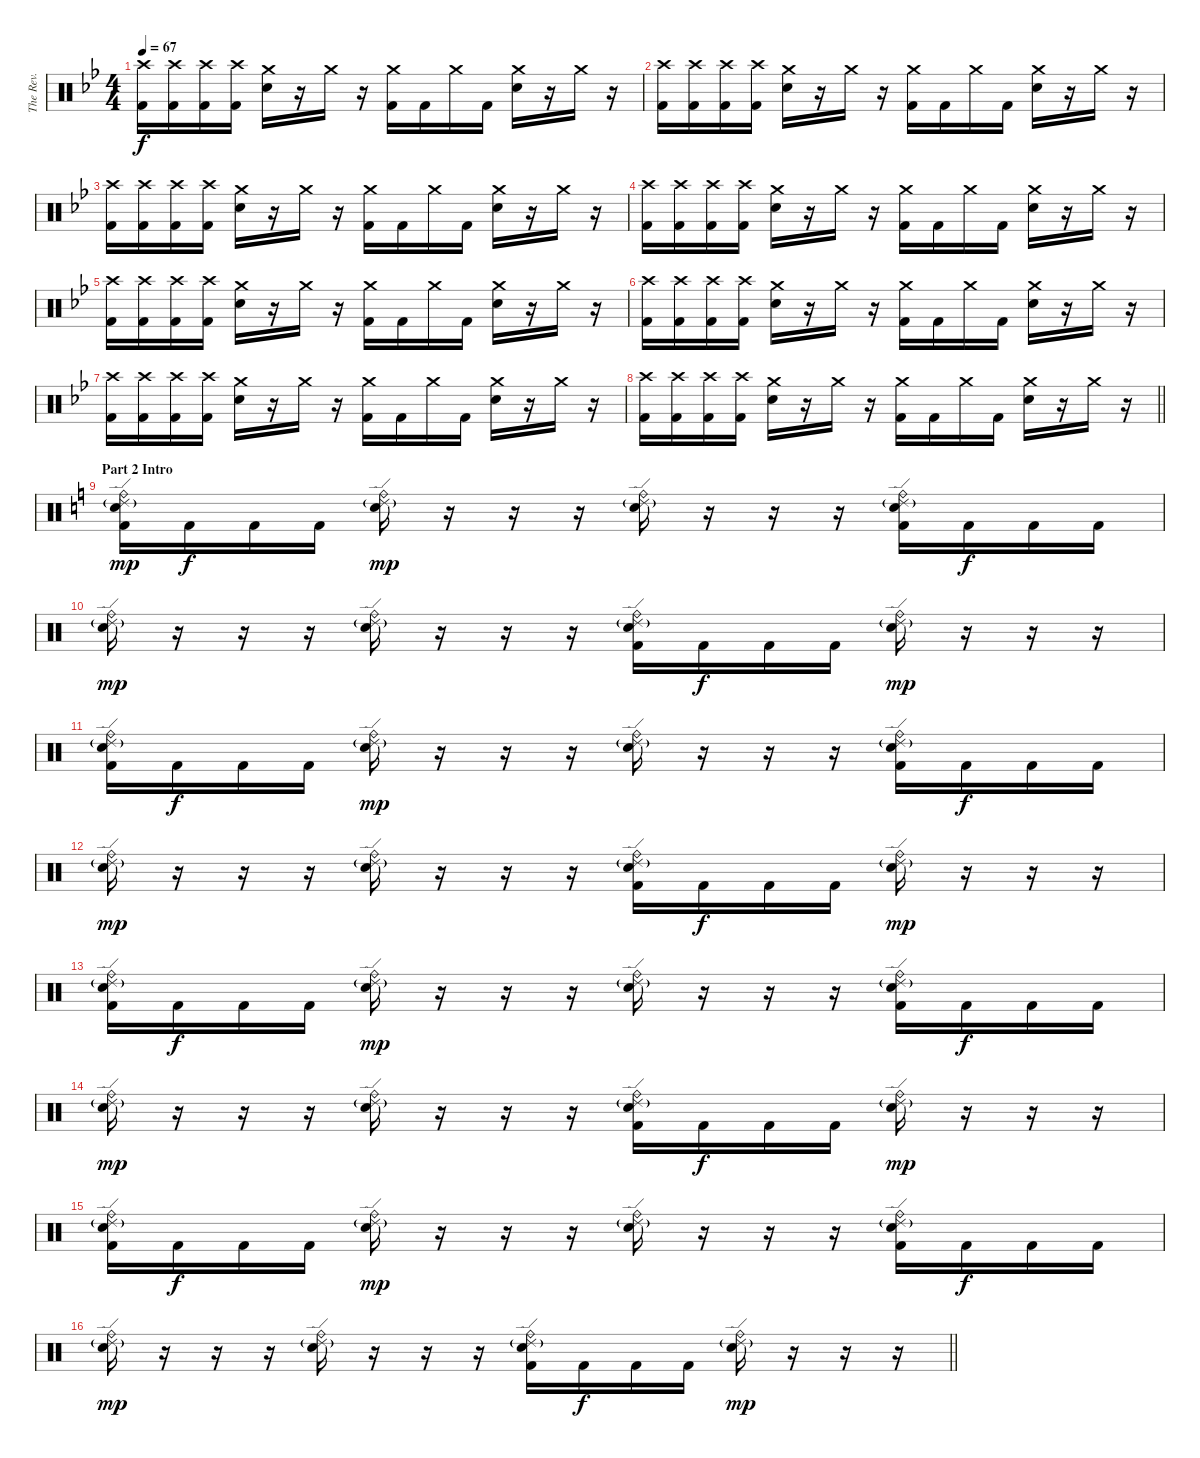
\track ("The Rev." "The Rev.") {instrument percussion}
\staff {score}
\articulation defaults
\ts (4 4)
\tempo 67
\clef neutral
\ks bb
("Crash high (hit)" "Kick (hit) 2").16{dy f} ("Crash high (hit)" "Kick (hit) 2").16 ("Crash high (hit)" "Kick (hit) 2").16 ("Crash high (hit)" "Kick (hit) 2").16 ("Crash medium (hit)" "Electric Snare (hit)").16 r.16 "Crash medium (hit)".16 r.16 ("Crash medium (hit)" "Kick (hit) 2").16 "Kick (hit) 2".16 "Crash medium (hit)".16 "Kick (hit) 2".16 ("Crash medium (hit)" "Electric Snare (hit)").16 r.16 "Crash medium (hit)".16 r.16 |
("Crash high (hit)" "Kick (hit) 2").16 ("Crash high (hit)" "Kick (hit) 2").16 ("Crash high (hit)" "Kick (hit) 2").16 ("Crash high (hit)" "Kick (hit) 2").16 ("Crash medium (hit)" "Electric Snare (hit)").16 r.16 "Crash medium (hit)".16 r.16 ("Crash medium (hit)" "Kick (hit) 2").16 "Kick (hit) 2".16 "Crash medium (hit)".16 "Kick (hit) 2".16 ("Crash medium (hit)" "Electric Snare (hit)").16 r.16 "Crash medium (hit)".16 r.16 |
("Crash high (hit)" "Kick (hit) 2").16 ("Crash high (hit)" "Kick (hit) 2").16 ("Crash high (hit)" "Kick (hit) 2").16 ("Crash high (hit)" "Kick (hit) 2").16 ("Crash medium (hit)" "Electric Snare (hit)").16 r.16 "Crash medium (hit)".16 r.16 ("Crash medium (hit)" "Kick (hit) 2").16 "Kick (hit) 2".16 "Crash medium (hit)".16 "Kick (hit) 2".16 ("Crash medium (hit)" "Electric Snare (hit)").16 r.16 "Crash medium (hit)".16 r.16 |
("Crash high (hit)" "Kick (hit) 2").16 ("Crash high (hit)" "Kick (hit) 2").16 ("Crash high (hit)" "Kick (hit) 2").16 ("Crash high (hit)" "Kick (hit) 2").16 ("Crash medium (hit)" "Electric Snare (hit)").16 r.16 "Crash medium (hit)".16 r.16 ("Crash medium (hit)" "Kick (hit) 2").16 "Kick (hit) 2".16 "Crash medium (hit)".16 "Kick (hit) 2".16 ("Crash medium (hit)" "Electric Snare (hit)").16 r.16 "Crash medium (hit)".16 r.16 |
("Crash high (hit)" "Kick (hit) 2").16{volume 5} ("Crash high (hit)" "Kick (hit) 2").16 ("Crash high (hit)" "Kick (hit) 2").16 ("Crash high (hit)" "Kick (hit) 2").16 ("Crash medium (hit)" "Electric Snare (hit)").16 r.16 "Crash medium (hit)".16 r.16 ("Crash medium (hit)" "Kick (hit) 2").16 "Kick (hit) 2".16 "Crash medium (hit)".16 "Kick (hit) 2".16 ("Crash medium (hit)" "Electric Snare (hit)").16 r.16 "Crash medium (hit)".16 r.16 |
("Crash high (hit)" "Kick (hit) 2").16 ("Crash high (hit)" "Kick (hit) 2").16 ("Crash high (hit)" "Kick (hit) 2").16 ("Crash high (hit)" "Kick (hit) 2").16 ("Crash medium (hit)" "Electric Snare (hit)").16 r.16 "Crash medium (hit)".16 r.16 ("Crash medium (hit)" "Kick (hit) 2").16 "Kick (hit) 2".16 "Crash medium (hit)".16 "Kick (hit) 2".16 ("Crash medium (hit)" "Electric Snare (hit)").16 r.16 "Crash medium (hit)".16 r.16 |
("Crash high (hit)" "Kick (hit) 2").16 ("Crash high (hit)" "Kick (hit) 2").16 ("Crash high (hit)" "Kick (hit) 2").16 ("Crash high (hit)" "Kick (hit) 2").16 ("Crash medium (hit)" "Electric Snare (hit)").16 r.16 "Crash medium (hit)".16 r.16 ("Crash medium (hit)" "Kick (hit) 2").16 "Kick (hit) 2".16 "Crash medium (hit)".16 "Kick (hit) 2".16 ("Crash medium (hit)" "Electric Snare (hit)").16 r.16 "Crash medium (hit)".16 r.16 |
\barLineRight lightlight
("Crash high (hit)" "Kick (hit) 2").16 ("Crash high (hit)" "Kick (hit) 2").16 ("Crash high (hit)" "Kick (hit) 2").16 ("Crash high (hit)" "Kick (hit) 2").16 ("Crash medium (hit)" "Electric Snare (hit)").16 r.16 "Crash medium (hit)".16 r.16 ("Crash medium (hit)" "Kick (hit) 2").16 "Kick (hit) 2".16 "Crash medium (hit)".16 "Kick (hit) 2".16 ("Crash medium (hit)" "Electric Snare (hit)").16 r.16 "Crash medium (hit)".16 r.16 |
\section ("" "Part 2 Intro")
\ks c
("Ride (edge) 2"{g} "Ride (bell)" "Electric Snare (hit)" "Kick (hit) 2").16{dy mp volume 16} "Kick (hit) 2".16{dy f} "Kick (hit) 2".16 "Kick (hit) 2".16 ("Ride (edge) 2"{g} "Ride (bell)" "Electric Snare (hit)").16{dy mp} r.16 r.16 r.16 ("Ride (edge) 2"{g} "Ride (bell)" "Electric Snare (hit)").16 r.16 r.16 r.16 ("Ride (edge) 2"{g} "Ride (bell)" "Electric Snare (hit)" "Kick (hit) 2").16 "Kick (hit) 2".16{dy f} "Kick (hit) 2".16 "Kick (hit) 2".16 |
("Ride (edge) 2"{g} "Ride (bell)" "Electric Snare (hit)").16{dy mp} r.16 r.16 r.16 ("Ride (edge) 2"{g} "Ride (bell)" "Electric Snare (hit)").16 r.16 r.16 r.16 ("Ride (edge) 2"{g} "Ride (bell)" "Electric Snare (hit)" "Kick (hit) 2").16 "Kick (hit) 2".16{dy f} "Kick (hit) 2".16 "Kick (hit) 2".16 ("Ride (edge) 2"{g} "Ride (bell)" "Electric Snare (hit)").16{dy mp} r.16 r.16 r.16 |
("Ride (edge) 2"{g} "Ride (bell)" "Electric Snare (hit)" "Kick (hit) 2").16 "Kick (hit) 2".16{dy f} "Kick (hit) 2".16 "Kick (hit) 2".16 ("Ride (edge) 2"{g} "Ride (bell)" "Electric Snare (hit)").16{dy mp} r.16 r.16 r.16 ("Ride (edge) 2"{g} "Ride (bell)" "Electric Snare (hit)").16 r.16 r.16 r.16 ("Ride (edge) 2"{g} "Ride (bell)" "Electric Snare (hit)" "Kick (hit) 2").16 "Kick (hit) 2".16{dy f} "Kick (hit) 2".16 "Kick (hit) 2".16 |
("Ride (edge) 2"{g} "Ride (bell)" "Electric Snare (hit)").16{dy mp} r.16 r.16 r.16 ("Ride (edge) 2"{g} "Ride (bell)" "Electric Snare (hit)").16 r.16 r.16 r.16 ("Ride (edge) 2"{g} "Ride (bell)" "Electric Snare (hit)" "Kick (hit) 2").16 "Kick (hit) 2".16{dy f} "Kick (hit) 2".16 "Kick (hit) 2".16 ("Ride (edge) 2"{g} "Ride (bell)" "Electric Snare (hit)").16{dy mp} r.16 r.16 r.16 |
("Ride (edge) 2"{g} "Ride (bell)" "Electric Snare (hit)" "Kick (hit) 2").16 "Kick (hit) 2".16{dy f} "Kick (hit) 2".16 "Kick (hit) 2".16 ("Ride (edge) 2"{g} "Ride (bell)" "Electric Snare (hit)").16{dy mp} r.16 r.16 r.16 ("Ride (edge) 2"{g} "Ride (bell)" "Electric Snare (hit)").16 r.16 r.16 r.16 ("Ride (edge) 2"{g} "Ride (bell)" "Electric Snare (hit)" "Kick (hit) 2").16 "Kick (hit) 2".16{dy f} "Kick (hit) 2".16 "Kick (hit) 2".16 |
("Ride (edge) 2"{g} "Ride (bell)" "Electric Snare (hit)").16{dy mp} r.16 r.16 r.16 ("Ride (edge) 2"{g} "Ride (bell)" "Electric Snare (hit)").16 r.16 r.16 r.16 ("Ride (edge) 2"{g} "Ride (bell)" "Electric Snare (hit)" "Kick (hit) 2").16 "Kick (hit) 2".16{dy f} "Kick (hit) 2".16 "Kick (hit) 2".16 ("Ride (edge) 2"{g} "Ride (bell)" "Electric Snare (hit)").16{dy mp} r.16 r.16 r.16 |
("Ride (edge) 2"{g} "Ride (bell)" "Electric Snare (hit)" "Kick (hit) 2").16 "Kick (hit) 2".16{dy f} "Kick (hit) 2".16 "Kick (hit) 2".16 ("Ride (edge) 2"{g} "Ride (bell)" "Electric Snare (hit)").16{dy mp} r.16 r.16 r.16 ("Ride (edge) 2"{g} "Ride (bell)" "Electric Snare (hit)").16 r.16 r.16 r.16 ("Ride (edge) 2"{g} "Ride (bell)" "Electric Snare (hit)" "Kick (hit) 2").16 "Kick (hit) 2".16{dy f} "Kick (hit) 2".16 "Kick (hit) 2".16 |
\barLineRight lightlight
("Ride (edge) 2"{g} "Ride (bell)" "Electric Snare (hit)").16{dy mp} r.16 r.16 r.16 ("Ride (edge) 2"{g} "Ride (bell)" "Electric Snare (hit)").16 r.16 r.16 r.16 ("Ride (edge) 2"{g} "Ride (bell)" "Electric Snare (hit)" "Kick (hit) 2").16 "Kick (hit) 2".16{dy f} "Kick (hit) 2".16 "Kick (hit) 2".16 ("Ride (edge) 2"{g} "Ride (bell)" "Electric Snare (hit)").16{dy mp} r.16 r.16 r.16
